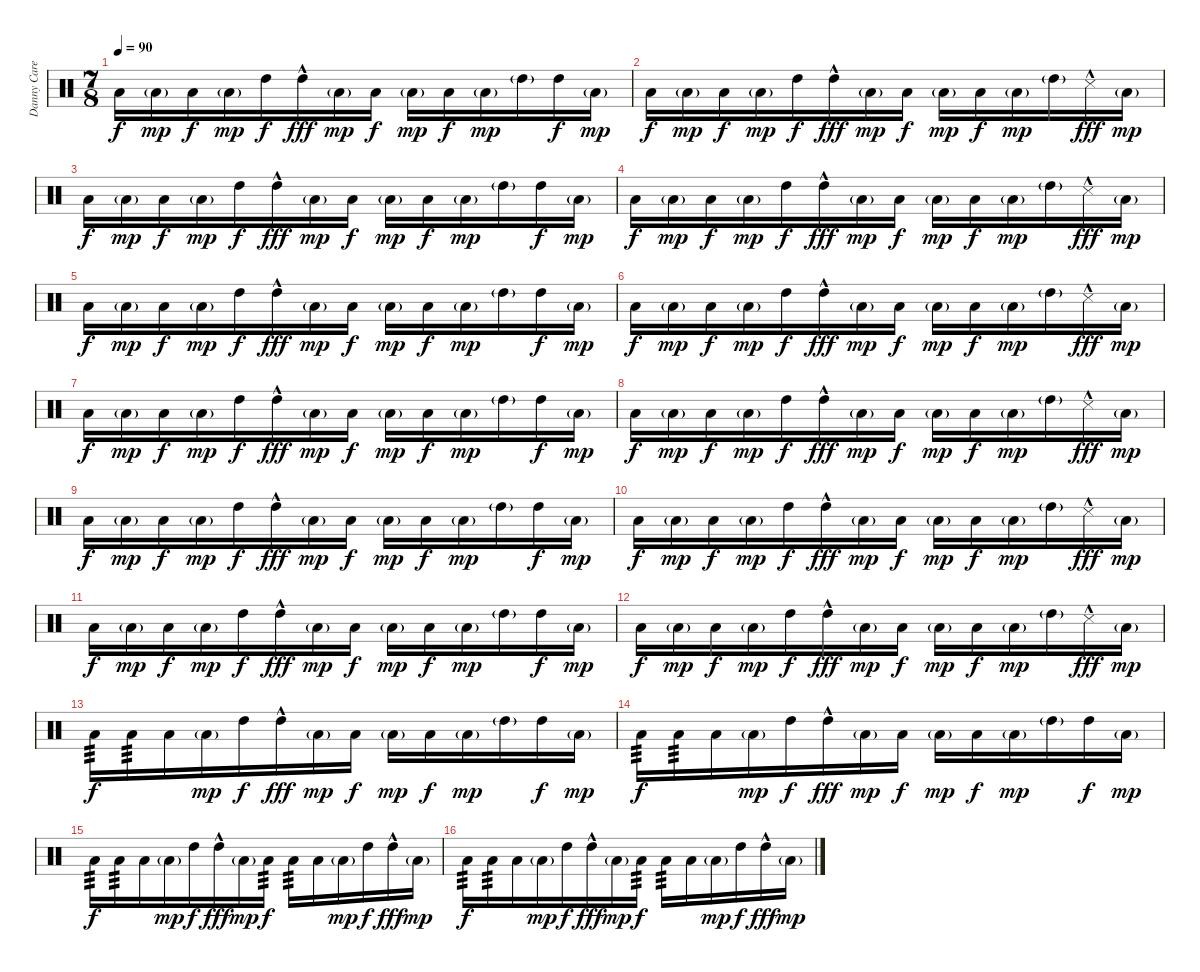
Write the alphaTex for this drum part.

\track ("Danny Carey" "Danny Care") {instrument percussion}
\staff {score}
\articulation defaults
\ts (7 8)
\tempo 90
\clef neutral
\ks c "Low Tom (hit)".16{dy f} "Low Tom (hit)"{g}.16{dy mp} "Low Tom (hit)".16{dy f} "Low Tom (hit)"{g}.16{dy mp} "High Tom (hit)".16{dy f} "High Tom (hit)"{hac}.16{dy fff} "Low Tom (hit)"{g}.16{dy mp} "Low Tom (hit)".16{dy f} "Low Tom (hit)"{g}.16{dy mp} "Low Tom (hit)".16{dy f} "Low Tom (hit)"{g}.16{dy mp} "High Tom (hit)"{g}.16 "High Tom (hit)".16{dy f} "Low Tom (hit)"{g}.16{dy mp}
|
"Low Tom (hit)".16{dy f} "Low Tom (hit)"{g}.16{dy mp} "Low Tom (hit)".16{dy f} "Low Tom (hit)"{g}.16{dy mp} "High Tom (hit)".16{dy f} "High Tom (hit)"{hac}.16{dy fff} "Low Tom (hit)"{g}.16{dy mp} "Low Tom (hit)".16{dy f} "Low Tom (hit)"{g}.16{dy mp} "Low Tom (hit)".16{dy f} "Low Tom (hit)"{g}.16{dy mp} "High Tom (hit)"{g}.16 "Snare (side stick) 3"{hac}.16{dy fff} "Low Tom (hit)"{g}.16{dy mp} |
"Low Tom (hit)".16{dy f} "Low Tom (hit)"{g}.16{dy mp} "Low Tom (hit)".16{dy f} "Low Tom (hit)"{g}.16{dy mp} "High Tom (hit)".16{dy f} "High Tom (hit)"{hac}.16{dy fff} "Low Tom (hit)"{g}.16{dy mp} "Low Tom (hit)".16{dy f} "Low Tom (hit)"{g}.16{dy mp} "Low Tom (hit)".16{dy f} "Low Tom (hit)"{g}.16{dy mp} "High Tom (hit)"{g}.16 "High Tom (hit)".16{dy f} "Low Tom (hit)"{g}.16{dy mp} |
"Low Tom (hit)".16{dy f} "Low Tom (hit)"{g}.16{dy mp} "Low Tom (hit)".16{dy f} "Low Tom (hit)"{g}.16{dy mp} "High Tom (hit)".16{dy f} "High Tom (hit)"{hac}.16{dy fff} "Low Tom (hit)"{g}.16{dy mp} "Low Tom (hit)".16{dy f} "Low Tom (hit)"{g}.16{dy mp} "Low Tom (hit)".16{dy f} "Low Tom (hit)"{g}.16{dy mp} "High Tom (hit)"{g}.16 "Snare (side stick) 3"{hac}.16{dy fff} "Low Tom (hit)"{g}.16{dy mp} |
"Low Tom (hit)".16{dy f} "Low Tom (hit)"{g}.16{dy mp} "Low Tom (hit)".16{dy f} "Low Tom (hit)"{g}.16{dy mp} "High Tom (hit)".16{dy f} "High Tom (hit)"{hac}.16{dy fff} "Low Tom (hit)"{g}.16{dy mp} "Low Tom (hit)".16{dy f} "Low Tom (hit)"{g}.16{dy mp} "Low Tom (hit)".16{dy f} "Low Tom (hit)"{g}.16{dy mp} "High Tom (hit)"{g}.16 "High Tom (hit)".16{dy f} "Low Tom (hit)"{g}.16{dy mp} |
"Low Tom (hit)".16{dy f} "Low Tom (hit)"{g}.16{dy mp} "Low Tom (hit)".16{dy f} "Low Tom (hit)"{g}.16{dy mp} "High Tom (hit)".16{dy f} "High Tom (hit)"{hac}.16{dy fff} "Low Tom (hit)"{g}.16{dy mp} "Low Tom (hit)".16{dy f} "Low Tom (hit)"{g}.16{dy mp} "Low Tom (hit)".16{dy f} "Low Tom (hit)"{g}.16{dy mp} "High Tom (hit)"{g}.16 "Snare (side stick) 3"{hac}.16{dy fff} "Low Tom (hit)"{g}.16{dy mp} |
"Low Tom (hit)".16{dy f} "Low Tom (hit)"{g}.16{dy mp} "Low Tom (hit)".16{dy f} "Low Tom (hit)"{g}.16{dy mp} "High Tom (hit)".16{dy f} "High Tom (hit)"{hac}.16{dy fff} "Low Tom (hit)"{g}.16{dy mp} "Low Tom (hit)".16{dy f} "Low Tom (hit)"{g}.16{dy mp} "Low Tom (hit)".16{dy f} "Low Tom (hit)"{g}.16{dy mp} "High Tom (hit)"{g}.16 "High Tom (hit)".16{dy f} "Low Tom (hit)"{g}.16{dy mp} |
"Low Tom (hit)".16{dy f} "Low Tom (hit)"{g}.16{dy mp} "Low Tom (hit)".16{dy f} "Low Tom (hit)"{g}.16{dy mp} "High Tom (hit)".16{dy f} "High Tom (hit)"{hac}.16{dy fff} "Low Tom (hit)"{g}.16{dy mp} "Low Tom (hit)".16{dy f} "Low Tom (hit)"{g}.16{dy mp} "Low Tom (hit)".16{dy f} "Low Tom (hit)"{g}.16{dy mp} "High Tom (hit)"{g}.16 "Snare (side stick) 3"{hac}.16{dy fff} "Low Tom (hit)"{g}.16{dy mp} |
"Low Tom (hit)".16{dy f} "Low Tom (hit)"{g}.16{dy mp} "Low Tom (hit)".16{dy f} "Low Tom (hit)"{g}.16{dy mp} "High Tom (hit)".16{dy f} "High Tom (hit)"{hac}.16{dy fff} "Low Tom (hit)"{g}.16{dy mp} "Low Tom (hit)".16{dy f} "Low Tom (hit)"{g}.16{dy mp} "Low Tom (hit)".16{dy f} "Low Tom (hit)"{g}.16{dy mp} "High Tom (hit)"{g}.16 "High Tom (hit)".16{dy f} "Low Tom (hit)"{g}.16{dy mp} |
"Low Tom (hit)".16{dy f} "Low Tom (hit)"{g}.16{dy mp} "Low Tom (hit)".16{dy f} "Low Tom (hit)"{g}.16{dy mp} "High Tom (hit)".16{dy f} "High Tom (hit)"{hac}.16{dy fff} "Low Tom (hit)"{g}.16{dy mp} "Low Tom (hit)".16{dy f} "Low Tom (hit)"{g}.16{dy mp} "Low Tom (hit)".16{dy f} "Low Tom (hit)"{g}.16{dy mp} "High Tom (hit)"{g}.16 "Snare (side stick) 3"{hac}.16{dy fff} "Low Tom (hit)"{g}.16{dy mp} |
"Low Tom (hit)".16{dy f} "Low Tom (hit)"{g}.16{dy mp} "Low Tom (hit)".16{dy f} "Low Tom (hit)"{g}.16{dy mp} "High Tom (hit)".16{dy f} "High Tom (hit)"{hac}.16{dy fff} "Low Tom (hit)"{g}.16{dy mp} "Low Tom (hit)".16{dy f} "Low Tom (hit)"{g}.16{dy mp} "Low Tom (hit)".16{dy f} "Low Tom (hit)"{g}.16{dy mp} "High Tom (hit)"{g}.16 "High Tom (hit)".16{dy f} "Low Tom (hit)"{g}.16{dy mp} |
"Low Tom (hit)".16{dy f} "Low Tom (hit)"{g}.16{dy mp} "Low Tom (hit)".16{dy f} "Low Tom (hit)"{g}.16{dy mp} "High Tom (hit)".16{dy f} "High Tom (hit)"{hac}.16{dy fff} "Low Tom (hit)"{g}.16{dy mp} "Low Tom (hit)".16{dy f} "Low Tom (hit)"{g}.16{dy mp} "Low Tom (hit)".16{dy f} "Low Tom (hit)"{g}.16{dy mp} "High Tom (hit)"{g}.16 "Snare (side stick) 3"{hac}.16{dy fff} "Low Tom (hit)"{g}.16{dy mp} |
"Low Tom (hit)".16{tp 3 dy f} "Low Tom (hit)".16{tp 3} "Low Tom (hit)".16 "Low Tom (hit)"{g}.16{dy mp} "High Tom (hit)".16{dy f} "High Tom (hit)"{hac}.16{dy fff} "Low Tom (hit)"{g}.16{dy mp} "Low Tom (hit)".16{dy f} "Low Tom (hit)"{g}.16{dy mp} "Low Tom (hit)".16{dy f} "Low Tom (hit)"{g}.16{dy mp} "High Tom (hit)"{g}.16 "High Tom (hit)".16{dy f} "Low Tom (hit)"{g}.16{dy mp} |
"Low Tom (hit)".16{tp 3 dy f} "Low Tom (hit)".16{tp 3} "Low Tom (hit)".16 "Low Tom (hit)"{g}.16{dy mp} "High Tom (hit)".16{dy f} "High Tom (hit)"{hac}.16{dy fff} "Low Tom (hit)"{g}.16{dy mp} "Low Tom (hit)".16{dy f} "Low Tom (hit)"{g}.16{dy mp} "Low Tom (hit)".16{dy f} "Low Tom (hit)"{g}.16{dy mp} "High Tom (hit)"{g}.16 "High Tom (hit)".16{dy f} "Low Tom (hit)"{g}.16{dy mp} |
"Low Tom (hit)".16{tp 3 dy f} "Low Tom (hit)".16{tp 3} "Low Tom (hit)".16 "Low Tom (hit)"{g}.16{dy mp} "High Tom (hit)".16{dy f} "High Tom (hit)"{hac}.16{dy fff} "Low Tom (hit)"{g}.16{dy mp} "Low Tom (hit)".16{tp 3 dy f} "Low Tom (hit)".16{tp 3} "Low Tom (hit)".16 "Low Tom (hit)"{g}.16{dy mp} "High Tom (hit)".16{dy f} "High Tom (hit)"{hac}.16{dy fff} "Low Tom (hit)"{g}.16{dy mp} |
"Low Tom (hit)".16{tp 3 dy f} "Low Tom (hit)".16{tp 3} "Low Tom (hit)".16 "Low Tom (hit)"{g}.16{dy mp} "High Tom (hit)".16{dy f} "High Tom (hit)"{hac}.16{dy fff} "Low Tom (hit)"{g}.16{dy mp} "Low Tom (hit)".16{tp 3 dy f} "Low Tom (hit)".16{tp 3} "Low Tom (hit)".16 "Low Tom (hit)"{g}.16{dy mp} "High Tom (hit)".16{dy f} "High Tom (hit)"{hac}.16{dy fff} "Low Tom (hit)"{g}.16{dy mp}
